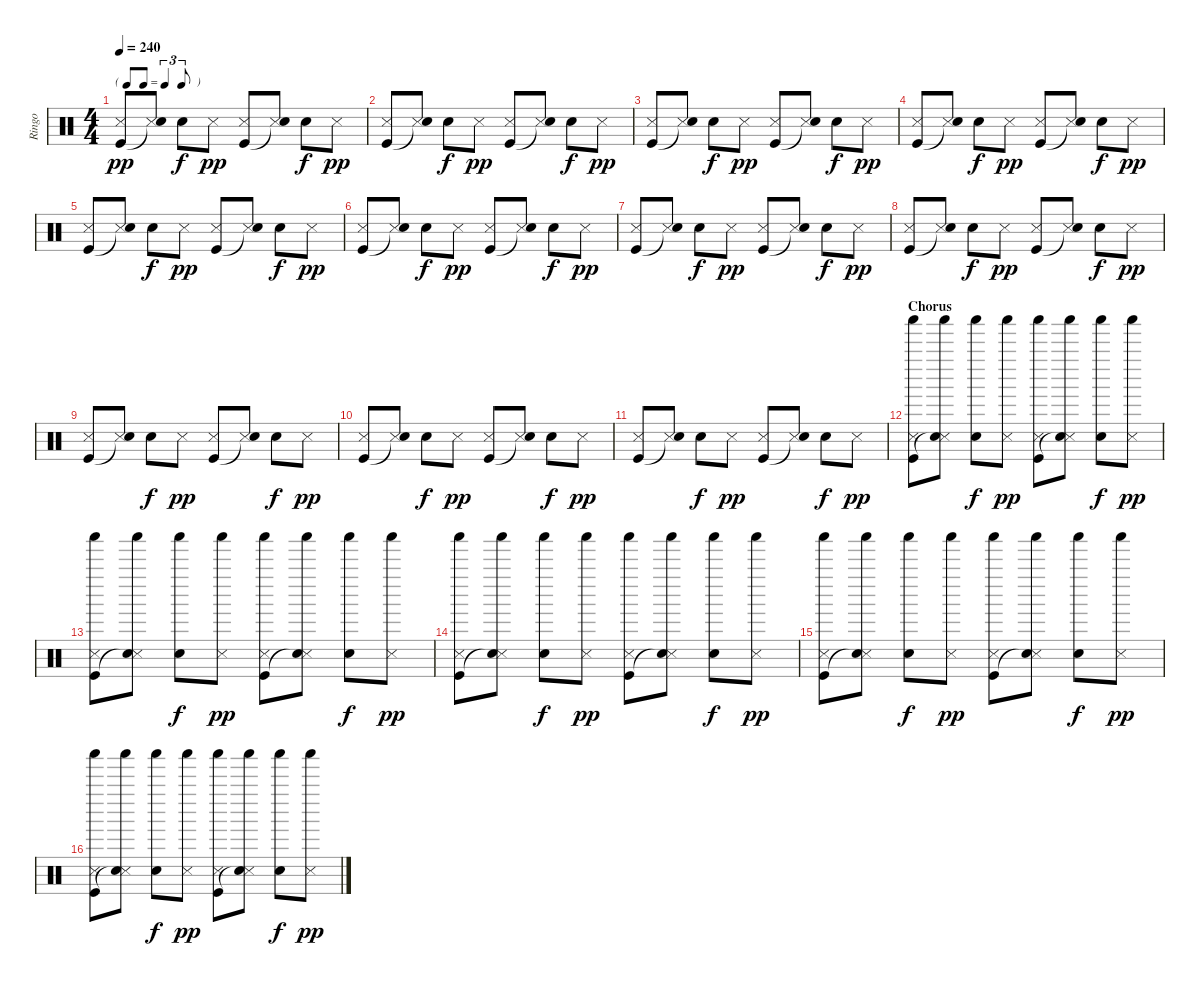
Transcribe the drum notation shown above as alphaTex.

\track ("Ringo" "Ringo") {instrument percussion}
\staff {score}
\articulation defaults
\ts (4 4)
\tf triplet8th
\tempo 240
\clef neutral
\ks c
("Snare (side stick) 3" "Kick (hit)").8{dy pp} ("Snare (side stick) 3" "Snare (hit)"{t}).8 "Snare (hit) 2".8{dy f} "Snare (side stick) 3".8{dy pp} ("Snare (side stick) 3" "Kick (hit)").8 ("Snare (side stick) 3" "Snare (hit)"{t}).8 "Snare (hit) 2".8{dy f} "Snare (side stick) 3".8{dy pp} |
("Snare (side stick) 3" "Kick (hit)").8 ("Snare (side stick) 3" "Snare (hit)"{t}).8 "Snare (hit) 2".8{dy f} "Snare (side stick) 3".8{dy pp} ("Snare (side stick) 3" "Kick (hit)").8 ("Snare (side stick) 3" "Snare (hit)"{t}).8 "Snare (hit) 2".8{dy f} "Snare (side stick) 3".8{dy pp} |
("Snare (side stick) 3" "Kick (hit)").8 ("Snare (side stick) 3" "Snare (hit)"{t}).8 "Snare (hit) 2".8{dy f} "Snare (side stick) 3".8{dy pp} ("Snare (side stick) 3" "Kick (hit)").8 ("Snare (side stick) 3" "Snare (hit)"{t}).8 "Snare (hit) 2".8{dy f} "Snare (side stick) 3".8{dy pp} |
("Snare (side stick) 3" "Kick (hit)").8 ("Snare (side stick) 3" "Snare (hit)"{t}).8 "Snare (hit) 2".8{dy f} "Snare (side stick) 3".8{dy pp} ("Snare (side stick) 3" "Kick (hit)").8 ("Snare (side stick) 3" "Snare (hit)"{t}).8 "Snare (hit) 2".8{dy f} "Snare (side stick) 3".8{dy pp} |
("Snare (side stick) 3" "Kick (hit)").8 ("Snare (side stick) 3" "Snare (hit)"{t}).8 "Snare (hit) 2".8{dy f} "Snare (side stick) 3".8{dy pp} ("Snare (side stick) 3" "Kick (hit)").8 ("Snare (side stick) 3" "Snare (hit)"{t}).8 "Snare (hit) 2".8{dy f} "Snare (side stick) 3".8{dy pp} |
("Snare (side stick) 3" "Kick (hit)").8 ("Snare (side stick) 3" "Snare (hit)"{t}).8 "Snare (hit) 2".8{dy f} "Snare (side stick) 3".8{dy pp} ("Snare (side stick) 3" "Kick (hit)").8 ("Snare (side stick) 3" "Snare (hit)"{t}).8 "Snare (hit) 2".8{dy f} "Snare (side stick) 3".8{dy pp} |
("Snare (side stick) 3" "Kick (hit)").8 ("Snare (side stick) 3" "Snare (hit)"{t}).8 "Snare (hit) 2".8{dy f} "Snare (side stick) 3".8{dy pp} ("Snare (side stick) 3" "Kick (hit)").8 ("Snare (side stick) 3" "Snare (hit)"{t}).8 "Snare (hit) 2".8{dy f} "Snare (side stick) 3".8{dy pp} |
("Snare (side stick) 3" "Kick (hit)").8 ("Snare (side stick) 3" "Snare (hit)"{t}).8 "Snare (hit) 2".8{dy f} "Snare (side stick) 3".8{dy pp} ("Snare (side stick) 3" "Kick (hit)").8 ("Snare (side stick) 3" "Snare (hit)"{t}).8 "Snare (hit) 2".8{dy f} "Snare (side stick) 3".8{dy pp} |
("Snare (side stick) 3" "Kick (hit)").8 ("Snare (side stick) 3" "Snare (hit)"{t}).8 "Snare (hit) 2".8{dy f} "Snare (side stick) 3".8{dy pp} ("Snare (side stick) 3" "Kick (hit)").8 ("Snare (side stick) 3" "Snare (hit)"{t}).8 "Snare (hit) 2".8{dy f} "Snare (side stick) 3".8{dy pp} |
("Snare (side stick) 3" "Kick (hit)").8 ("Snare (side stick) 3" "Snare (hit)"{t}).8 "Snare (hit) 2".8{dy f} "Snare (side stick) 3".8{dy pp} ("Snare (side stick) 3" "Kick (hit)").8 ("Snare (side stick) 3" "Snare (hit)"{t}).8 "Snare (hit) 2".8{dy f} "Snare (side stick) 3".8{dy pp} |
("Snare (side stick) 3" "Kick (hit)").8 ("Snare (side stick) 3" "Snare (hit)"{t}).8 "Snare (hit) 2".8{dy f} "Snare (side stick) 3".8{dy pp} ("Snare (side stick) 3" "Kick (hit)").8 ("Snare (side stick) 3" "Snare (hit)"{t}).8 "Snare (hit) 2".8{dy f} "Snare (side stick) 3".8{dy pp} |
\section ("" "Chorus")
("Shaker (hit)" "Snare (side stick) 3" "Kick (hit)").8 ("Shaker (hit)" "Snare (side stick) 3" "Snare (hit)"{t}).8 ("Shaker (hit)" "Snare (hit) 2").8{dy f} ("Shaker (hit)" "Snare (side stick) 3").8{dy pp} ("Shaker (hit)" "Snare (side stick) 3" "Kick (hit)").8 ("Shaker (hit)" "Snare (side stick) 3" "Snare (hit)"{t}).8 ("Shaker (hit)" "Snare (hit) 2").8{dy f} ("Shaker (hit)" "Snare (side stick) 3").8{dy pp} |
("Shaker (hit)" "Snare (side stick) 3" "Kick (hit)").8 ("Shaker (hit)" "Snare (side stick) 3" "Snare (hit)"{t}).8 ("Shaker (hit)" "Snare (hit) 2").8{dy f} ("Shaker (hit)" "Snare (side stick) 3").8{dy pp} ("Shaker (hit)" "Snare (side stick) 3" "Kick (hit)").8 ("Shaker (hit)" "Snare (side stick) 3" "Snare (hit)"{t}).8 ("Shaker (hit)" "Snare (hit) 2").8{dy f} ("Shaker (hit)" "Snare (side stick) 3").8{dy pp} |
("Shaker (hit)" "Snare (side stick) 3" "Kick (hit)").8 ("Shaker (hit)" "Snare (side stick) 3" "Snare (hit)"{t}).8 ("Shaker (hit)" "Snare (hit) 2").8{dy f} ("Shaker (hit)" "Snare (side stick) 3").8{dy pp} ("Shaker (hit)" "Snare (side stick) 3" "Kick (hit)").8 ("Shaker (hit)" "Snare (side stick) 3" "Snare (hit)"{t}).8 ("Shaker (hit)" "Snare (hit) 2").8{dy f} ("Shaker (hit)" "Snare (side stick) 3").8{dy pp} |
("Shaker (hit)" "Snare (side stick) 3" "Kick (hit)").8 ("Shaker (hit)" "Snare (side stick) 3" "Snare (hit)"{t}).8 ("Shaker (hit)" "Snare (hit) 2").8{dy f} ("Shaker (hit)" "Snare (side stick) 3").8{dy pp} ("Shaker (hit)" "Snare (side stick) 3" "Kick (hit)").8 ("Shaker (hit)" "Snare (side stick) 3" "Snare (hit)"{t}).8 ("Shaker (hit)" "Snare (hit) 2").8{dy f} ("Shaker (hit)" "Snare (side stick) 3").8{dy pp} |
("Shaker (hit)" "Snare (side stick) 3" "Kick (hit)").8 ("Shaker (hit)" "Snare (side stick) 3" "Snare (hit)"{t}).8 ("Shaker (hit)" "Snare (hit) 2").8{dy f} ("Shaker (hit)" "Snare (side stick) 3").8{dy pp} ("Shaker (hit)" "Snare (side stick) 3" "Kick (hit)").8 ("Shaker (hit)" "Snare (side stick) 3" "Snare (hit)"{t}).8 ("Shaker (hit)" "Snare (hit) 2").8{dy f} ("Shaker (hit)" "Snare (side stick) 3").8{dy pp}
